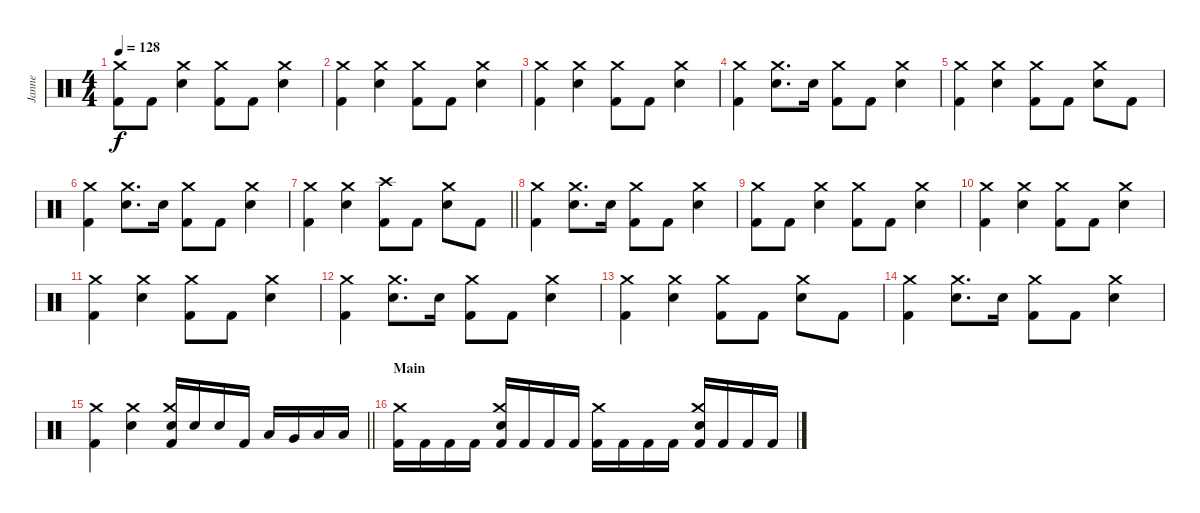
\track ("Janne" "Janne") {instrument percussion}
\staff {score}
\articulation defaults
\ts (4 4)
\tempo 128
\clef neutral
\ks c
("Kick (hit) 2" "Crash medium (hit)").8{dy f} "Kick (hit) 2".8 ("Snare (hit) 2" "Crash medium (hit)").4 ("Kick (hit) 2" "Crash medium (hit)").8 "Kick (hit) 2".8 ("Snare (hit) 2" "Crash medium (hit)").4 |
("Kick (hit) 2" "Crash medium (hit)").4 ("Snare (hit) 2" "Crash medium (hit)").4 ("Kick (hit) 2" "Crash medium (hit)").8 "Kick (hit) 2".8 ("Snare (hit) 2" "Crash medium (hit)").4 |
("Kick (hit) 2" "Crash medium (hit)").4 ("Snare (hit) 2" "Crash medium (hit)").4 ("Kick (hit) 2" "Crash medium (hit)").8 "Kick (hit) 2".8 ("Snare (hit) 2" "Crash medium (hit)").4 |
("Kick (hit) 2" "Crash medium (hit)").4 ("Snare (hit) 2" "Crash medium (hit)").8{d} "Snare (hit) 2".16 ("Kick (hit) 2" "Crash medium (hit)").8 "Kick (hit) 2".8 ("Snare (hit) 2" "Crash medium (hit)").4 |
("Kick (hit) 2" "Crash medium (hit)").4 ("Snare (hit) 2" "Crash medium (hit)").4 ("Kick (hit) 2" "Crash medium (hit)").8 "Kick (hit) 2".8 ("Snare (hit) 2" "Crash medium (hit)").8 "Kick (hit) 2".8 |
("Kick (hit) 2" "Crash medium (hit)").4 ("Snare (hit) 2" "Crash medium (hit)").8{d} "Snare (hit) 2".16 ("Kick (hit) 2" "Crash medium (hit)").8 "Kick (hit) 2".8 ("Snare (hit) 2" "Crash medium (hit)").4 |
\barLineRight lightlight
("Kick (hit) 2" "Crash medium (hit)").4 ("Snare (hit) 2" "Crash medium (hit)").4 ("Kick (hit) 2" "Crash high (hit)").8 "Kick (hit) 2".8 ("Snare (hit) 2" "Crash medium (hit)").8 "Kick (hit) 2".8 |
\section ("" "")
("Kick (hit) 2" "Crash medium (hit)").4 ("Snare (hit) 2" "Crash medium (hit)").8{d} "Snare (hit) 2".16 ("Kick (hit) 2" "Crash medium (hit)").8 "Kick (hit) 2".8 ("Snare (hit) 2" "Crash medium (hit)").4 |
("Kick (hit) 2" "Crash medium (hit)").8 "Kick (hit) 2".8 ("Snare (hit) 2" "Crash medium (hit)").4 ("Kick (hit) 2" "Crash medium (hit)").8 "Kick (hit) 2".8 ("Snare (hit) 2" "Crash medium (hit)").4 |
("Kick (hit) 2" "Crash medium (hit)").4 ("Snare (hit) 2" "Crash medium (hit)").4 ("Kick (hit) 2" "Crash medium (hit)").8 "Kick (hit) 2".8 ("Snare (hit) 2" "Crash medium (hit)").4 |
("Kick (hit) 2" "Crash medium (hit)").4 ("Snare (hit) 2" "Crash medium (hit)").4 ("Kick (hit) 2" "Crash medium (hit)").8 "Kick (hit) 2".8 ("Snare (hit) 2" "Crash medium (hit)").4 |
("Kick (hit) 2" "Crash medium (hit)").4 ("Snare (hit) 2" "Crash medium (hit)").8{d} "Snare (hit) 2".16 ("Kick (hit) 2" "Crash medium (hit)").8 "Kick (hit) 2".8 ("Snare (hit) 2" "Crash medium (hit)").4 |
("Kick (hit) 2" "Crash medium (hit)").4 ("Snare (hit) 2" "Crash medium (hit)").4 ("Kick (hit) 2" "Crash medium (hit)").8 "Kick (hit) 2".8 ("Snare (hit) 2" "Crash medium (hit)").8 "Kick (hit) 2".8 |
("Kick (hit) 2" "Crash medium (hit)").4 ("Snare (hit) 2" "Crash medium (hit)").8{d} "Snare (hit) 2".16 ("Kick (hit) 2" "Crash medium (hit)").8 "Kick (hit) 2".8 ("Snare (hit) 2" "Crash medium (hit)").4 |
\barLineRight lightlight
("Kick (hit) 2" "Crash medium (hit)").4 ("Snare (hit) 2" "Crash medium (hit)").4 ("Kick (hit) 2" "Snare (hit) 2" "Crash medium (hit)").16 "Snare (hit) 2".16 "Snare (hit) 2".16 "Kick (hit) 2".16 "Low Tom (hit)".16 "Very Low Tom (hit)".16 "Low Floor Tom (hit)".16 "Low Floor Tom (hit)".16 |
\section ("" "Main")
("Kick (hit) 2" "Crash medium (hit)").16 "Kick (hit) 2".16 "Kick (hit) 2".16 "Kick (hit) 2".16 ("Kick (hit) 2" "Snare (hit) 2" "Crash medium (hit)").16 "Kick (hit) 2".16 "Kick (hit) 2".16 "Kick (hit) 2".16 ("Kick (hit) 2" "Crash medium (hit)").16 "Kick (hit) 2".16 "Kick (hit) 2".16 "Kick (hit) 2".16 ("Kick (hit) 2" "Snare (hit) 2" "Crash medium (hit)").16 "Kick (hit) 2".16 "Kick (hit) 2".16 "Kick (hit) 2".16
